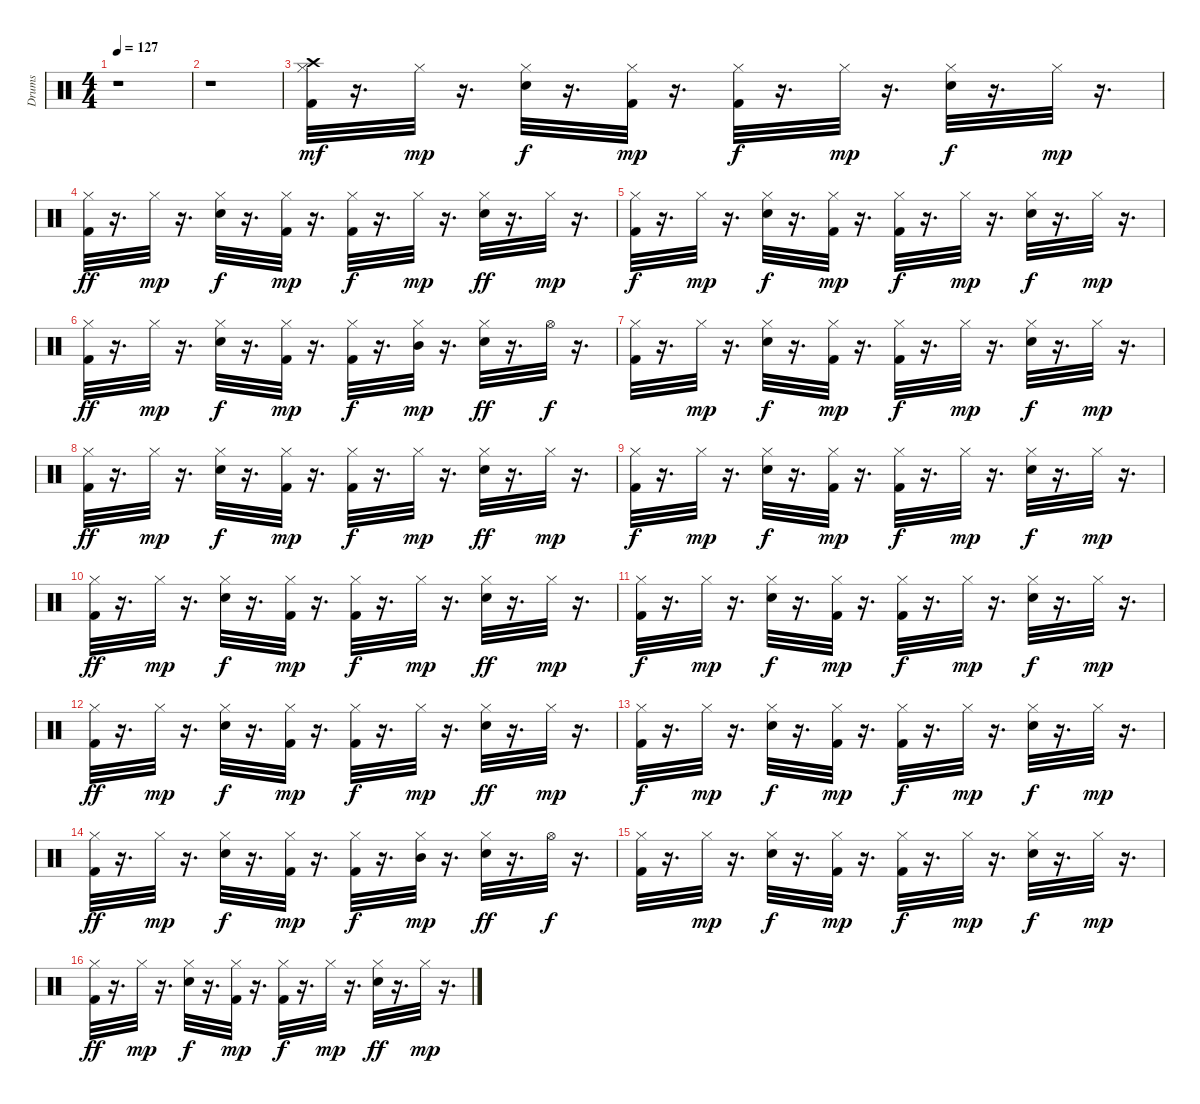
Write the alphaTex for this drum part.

\track ("Drums               " "Drums     ") {instrument percussion}
\staff {score}
\articulation defaults
\ts (4 4)
\tempo 127
\clef neutral
\ks c
r.1{dy mf} |
r.1 |
("Kick (hit) 2" "Crash high (hit)" "Hi-Hat (closed)").32 r.16{d} "Hi-Hat (closed)".32{dy mp} r.16{d} ("Snare (hit) 2" "Hi-Hat (closed)").32{dy f} r.16{d} ("Kick (hit) 2" "Hi-Hat (closed)").32{dy mp} r.16{d} ("Hi-Hat (closed)" "Kick (hit) 2").32{dy f} r.16{d} "Hi-Hat (closed)".32{dy mp} r.16{d} ("Snare (hit) 2" "Hi-Hat (closed)").32{dy f} r.16{d} "Hi-Hat (closed)".32{dy mp} r.16{d} |
("Kick (hit) 2" "Hi-Hat (closed)").32{dy ff} r.16{d} "Hi-Hat (closed)".32{dy mp} r.16{d} ("Snare (hit) 2" "Hi-Hat (closed)").32{dy f} r.16{d} ("Kick (hit) 2" "Hi-Hat (closed)").32{dy mp} r.16{d} ("Kick (hit) 2" "Hi-Hat (closed)").32{dy f} r.16{d} "Hi-Hat (closed)".32{dy mp} r.16{d} ("Snare (hit) 2" "Hi-Hat (closed)").32{dy ff} r.16{d} "Hi-Hat (closed)".32{dy mp} r.16{d} |
("Kick (hit) 2" "Hi-Hat (closed)").32{dy f} r.16{d} "Hi-Hat (closed)".32{dy mp} r.16{d} ("Snare (hit) 2" "Hi-Hat (closed)").32{dy f} r.16{d} ("Kick (hit) 2" "Hi-Hat (closed)").32{dy mp} r.16{d} ("Kick (hit) 2" "Hi-Hat (closed)").32{dy f} r.16{d} "Hi-Hat (closed)".32{dy mp} r.16{d} ("Snare (hit) 2" "Hi-Hat (closed)").32{dy f} r.16{d} "Hi-Hat (closed)".32{dy mp} r.16{d} |
("Kick (hit) 2" "Hi-Hat (closed)").32{dy ff} r.16{d} "Hi-Hat (closed)".32{dy mp} r.16{d} ("Hi-Hat (closed)" "Snare (hit) 2").32{dy f} r.16{d} ("Kick (hit) 2" "Hi-Hat (closed)").32{dy mp} r.16{d} ("Kick (hit) 2" "Hi-Hat (closed)").32{dy f} r.16{d} ("Hi-Hat (closed)" "Mid Tom (hit)").32{dy mp} r.16{d} ("Snare (hit) 2" "Hi-Hat (closed)").32{dy ff} r.16{d} "Hi-Hat (open)".32{dy f} r.16{d} |
("Kick (hit) 2" "Hi-Hat (closed)").32 r.16{d} "Hi-Hat (closed)".32{dy mp} r.16{d} ("Snare (hit) 2" "Hi-Hat (closed)").32{dy f} r.16{d} ("Kick (hit) 2" "Hi-Hat (closed)").32{dy mp} r.16{d} ("Kick (hit) 2" "Hi-Hat (closed)").32{dy f} r.16{d} "Hi-Hat (closed)".32{dy mp} r.16{d} ("Snare (hit) 2" "Hi-Hat (closed)").32{dy f} r.16{d} "Hi-Hat (closed)".32{dy mp} r.16{d} |
("Kick (hit) 2" "Hi-Hat (closed)").32{dy ff} r.16{d} "Hi-Hat (closed)".32{dy mp} r.16{d} ("Snare (hit) 2" "Hi-Hat (closed)").32{dy f} r.16{d} ("Kick (hit) 2" "Hi-Hat (closed)").32{dy mp} r.16{d} ("Kick (hit) 2" "Hi-Hat (closed)").32{dy f} r.16{d} "Hi-Hat (closed)".32{dy mp} r.16{d} ("Snare (hit) 2" "Hi-Hat (closed)").32{dy ff} r.16{d} "Hi-Hat (closed)".32{dy mp} r.16{d} |
("Hi-Hat (closed)" "Kick (hit) 2").32{dy f} r.16{d} "Hi-Hat (closed)".32{dy mp} r.16{d} ("Snare (hit) 2" "Hi-Hat (closed)").32{dy f} r.16{d} ("Kick (hit) 2" "Hi-Hat (closed)").32{dy mp} r.16{d} ("Kick (hit) 2" "Hi-Hat (closed)").32{dy f} r.16{d} "Hi-Hat (closed)".32{dy mp} r.16{d} ("Snare (hit) 2" "Hi-Hat (closed)").32{dy f} r.16{d} "Hi-Hat (closed)".32{dy mp} r.16{d} |
("Kick (hit) 2" "Hi-Hat (closed)").32{dy ff} r.16{d} "Hi-Hat (closed)".32{dy mp} r.16{d} ("Snare (hit) 2" "Hi-Hat (closed)").32{dy f} r.16{d} ("Hi-Hat (closed)" "Kick (hit) 2").32{dy mp} r.16{d} ("Kick (hit) 2" "Hi-Hat (closed)").32{dy f} r.16{d} "Hi-Hat (closed)".32{dy mp} r.16{d} ("Snare (hit) 2" "Hi-Hat (closed)").32{dy ff} r.16{d} "Hi-Hat (closed)".32{dy mp} r.16{d} |
("Kick (hit) 2" "Hi-Hat (closed)").32{dy f} r.16{d} "Hi-Hat (closed)".32{dy mp} r.16{d} ("Snare (hit) 2" "Hi-Hat (closed)").32{dy f} r.16{d} ("Kick (hit) 2" "Hi-Hat (closed)").32{dy mp} r.16{d} ("Kick (hit) 2" "Hi-Hat (closed)").32{dy f} r.16{d} "Hi-Hat (closed)".32{dy mp} r.16{d} ("Hi-Hat (closed)" "Snare (hit) 2").32{dy f} r.16{d} "Hi-Hat (closed)".32{dy mp} r.16{d} |
("Kick (hit) 2" "Hi-Hat (closed)").32{dy ff} r.16{d} "Hi-Hat (closed)".32{dy mp} r.16{d} ("Snare (hit) 2" "Hi-Hat (closed)").32{dy f} r.16{d} ("Kick (hit) 2" "Hi-Hat (closed)").32{dy mp} r.16{d} ("Kick (hit) 2" "Hi-Hat (closed)").32{dy f} r.16{d} "Hi-Hat (closed)".32{dy mp} r.16{d} ("Snare (hit) 2" "Hi-Hat (closed)").32{dy ff} r.16{d} "Hi-Hat (closed)".32{dy mp} r.16{d} |
("Kick (hit) 2" "Hi-Hat (closed)").32{dy f} r.16{d} "Hi-Hat (closed)".32{dy mp} r.16{d} ("Snare (hit) 2" "Hi-Hat (closed)").32{dy f} r.16{d} ("Kick (hit) 2" "Hi-Hat (closed)").32{dy mp} r.16{d} ("Kick (hit) 2" "Hi-Hat (closed)").32{dy f} r.16{d} "Hi-Hat (closed)".32{dy mp} r.16{d} ("Snare (hit) 2" "Hi-Hat (closed)").32{dy f} r.16{d} "Hi-Hat (closed)".32{dy mp} r.16{d} |
("Kick (hit) 2" "Hi-Hat (closed)").32{dy ff} r.16{d} "Hi-Hat (closed)".32{dy mp} r.16{d} ("Snare (hit) 2" "Hi-Hat (closed)").32{dy f} r.16{d} ("Kick (hit) 2" "Hi-Hat (closed)").32{dy mp} r.16{d} ("Hi-Hat (closed)" "Kick (hit) 2").32{dy f} r.16{d} ("Mid Tom (hit)" "Hi-Hat (closed)").32{dy mp} r.16{d} ("Snare (hit) 2" "Hi-Hat (closed)").32{dy ff} r.16{d} "Hi-Hat (open)".32{dy f} r.16{d} |
("Kick (hit) 2" "Hi-Hat (closed)").32 r.16{d} "Hi-Hat (closed)".32{dy mp} r.16{d} ("Snare (hit) 2" "Hi-Hat (closed)").32{dy f} r.16{d} ("Kick (hit) 2" "Hi-Hat (closed)").32{dy mp} r.16{d} ("Kick (hit) 2" "Hi-Hat (closed)").32{dy f} r.16{d} "Hi-Hat (closed)".32{dy mp} r.16{d} ("Snare (hit) 2" "Hi-Hat (closed)").32{dy f} r.16{d} "Hi-Hat (closed)".32{dy mp} r.16{d} |
("Kick (hit) 2" "Hi-Hat (closed)").32{dy ff} r.16{d} "Hi-Hat (closed)".32{dy mp} r.16{d} ("Snare (hit) 2" "Hi-Hat (closed)").32{dy f} r.16{d} ("Kick (hit) 2" "Hi-Hat (closed)").32{dy mp} r.16{d} ("Kick (hit) 2" "Hi-Hat (closed)").32{dy f} r.16{d} "Hi-Hat (closed)".32{dy mp} r.16{d} ("Snare (hit) 2" "Hi-Hat (closed)").32{dy ff} r.16{d} "Hi-Hat (closed)".32{dy mp} r.16{d}
